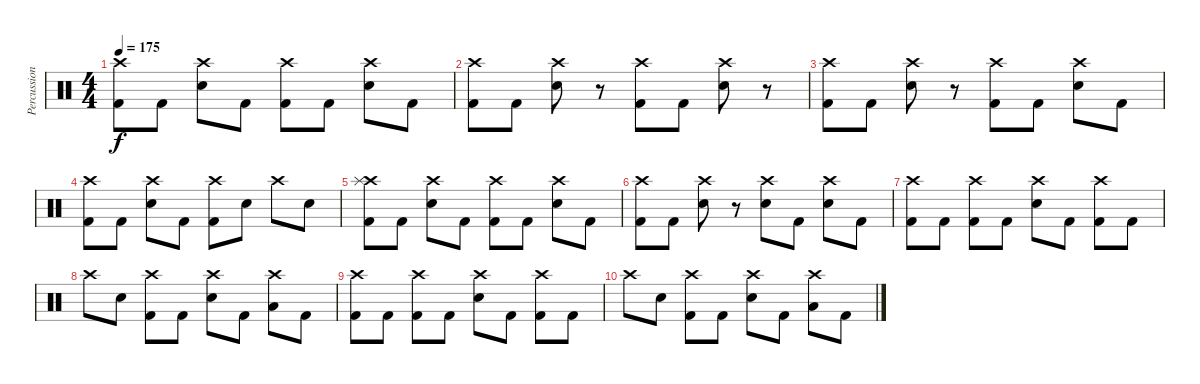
\track ("Percussion" "Percussion") {instrument percussion bank 177}
\staff {score}
\articulation defaults
\ts (4 4)
\tempo 175
\clef neutral
\ks c
("Crash high (hit)" "Kick (hit) 2").8{dy f} "Kick (hit) 2".8 ("Crash high (hit)" "Electric Snare (hit)").8 "Kick (hit) 2".8 ("Crash high (hit)" "Kick (hit) 2").8 "Kick (hit) 2".8 ("Crash high (hit)" "Electric Snare (hit)").8 "Kick (hit) 2".8 |
("Crash high (hit)" "Kick (hit) 2").8 "Kick (hit) 2".8 ("Crash high (hit)" "Electric Snare (hit)").8 r.8 ("Crash high (hit)" "Kick (hit) 2").8 "Kick (hit) 2".8 ("Crash high (hit)" "Electric Snare (hit)").8 r.8 |
("Crash high (hit)" "Kick (hit) 2").8 "Kick (hit) 2".8 ("Crash high (hit)" "Electric Snare (hit)").8 r.8 ("Crash high (hit)" "Kick (hit) 2").8 "Kick (hit) 2".8 ("Crash high (hit)" "Electric Snare (hit)").8 "Kick (hit) 2".8 |
("Crash high (hit)" "Kick (hit) 2").8 "Kick (hit) 2".8 ("Crash high (hit)" "Electric Snare (hit)").8 "Kick (hit) 2".8 ("Crash high (hit)" "Kick (hit) 2").8 "Electric Snare (hit)".8 "Crash high (hit)".8 "Electric Snare (hit)".8 |
("Crash high (hit)" "Splash (hit)" "Kick (hit) 2").8 "Kick (hit) 2".8 ("Crash high (hit)" "Electric Snare (hit)").8 "Kick (hit) 2".8 ("Crash high (hit)" "Kick (hit) 2").8 "Kick (hit) 2".8 ("Crash high (hit)" "Electric Snare (hit)").8 "Kick (hit) 2".8 |
("Crash high (hit)" "Kick (hit) 2").8 "Kick (hit) 2".8 ("Crash high (hit)" "Electric Snare (hit)").8 r.8 ("Crash high (hit)" "Electric Snare (hit)").8 "Kick (hit) 2".8 ("Crash high (hit)" "Electric Snare (hit)").8 "Kick (hit) 2".8 |
("Crash high (hit)" "Kick (hit) 2").8 "Kick (hit) 2".8 ("Crash high (hit)" "Kick (hit) 2").8 "Kick (hit) 2".8 ("Crash high (hit)" "Electric Snare (hit)").8 "Kick (hit) 2".8 ("Crash high (hit)" "Kick (hit) 2").8 "Kick (hit) 2".8 |
"Crash high (hit)".8 "Electric Snare (hit)".8 ("Crash high (hit)" "Kick (hit) 2").8 "Kick (hit) 2".8 ("Crash high (hit)" "Electric Snare (hit)").8 "Kick (hit) 2".8 ("Crash high (hit)" "Low Tom (hit)").8 "Kick (hit) 2".8 |
("Crash high (hit)" "Kick (hit) 2").8 "Kick (hit) 2".8 ("Crash high (hit)" "Kick (hit) 2").8 "Kick (hit) 2".8 ("Crash high (hit)" "Electric Snare (hit)").8 "Kick (hit) 2".8 ("Crash high (hit)" "Kick (hit) 2").8 "Kick (hit) 2".8 |
"Crash high (hit)".8 "Electric Snare (hit)".8 ("Crash high (hit)" "Kick (hit) 2").8 "Kick (hit) 2".8 ("Crash high (hit)" "Electric Snare (hit)").8 "Kick (hit) 2".8 ("Crash high (hit)" "Low Tom (hit)").8 "Kick (hit) 2".8
